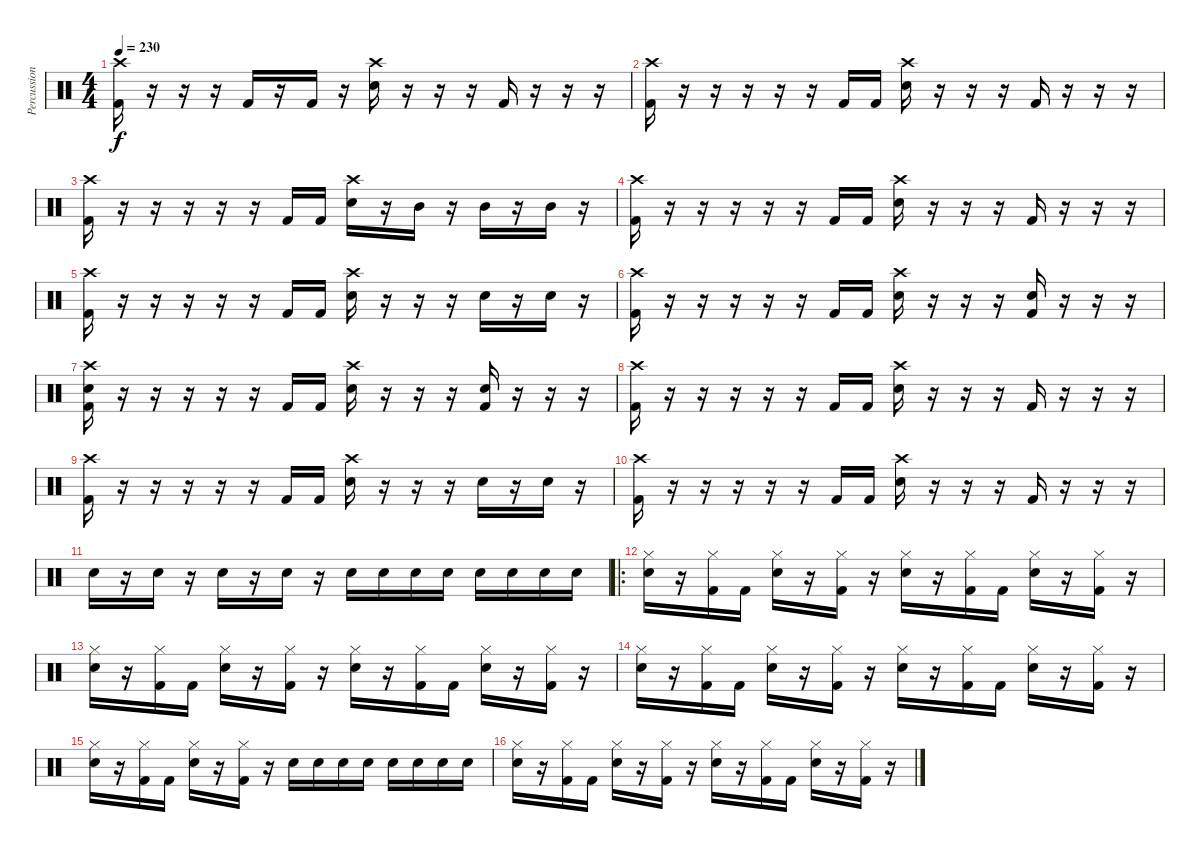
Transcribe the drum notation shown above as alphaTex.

\track ("Percussion" "Percussion") {instrument percussion}
\staff {score}
\articulation defaults
\ts (4 4)
\tempo 230
\clef neutral
\ks c
("Crash high (hit)" "Kick (hit) 2").16{dy f} r.16 r.16 r.16 "Kick (hit) 2".16 r.16 "Kick (hit) 2".16 r.16 ("Crash high (hit)" "Electric Snare (hit)").16 r.16 r.16 r.16 "Kick (hit) 2".16 r.16 r.16 r.16 |
("Crash high (hit)" "Kick (hit) 2").16 r.16 r.16 r.16 r.16 r.16 "Kick (hit) 2".16 "Kick (hit) 2".16 ("Crash high (hit)" "Electric Snare (hit)").16 r.16 r.16 r.16 "Kick (hit) 2".16 r.16 r.16 r.16 |
("Crash high (hit)" "Kick (hit) 2").16 r.16 r.16 r.16 r.16 r.16 "Kick (hit) 2".16 "Kick (hit) 2".16 ("Crash high (hit)" "Electric Snare (hit)").16 r.16 "Mid Tom (hit)".16 r.16 "Mid Tom (hit)".16 r.16 "Mid Tom (hit)".16 r.16 |
("Crash high (hit)" "Kick (hit) 2").16 r.16 r.16 r.16 r.16 r.16 "Kick (hit) 2".16 "Kick (hit) 2".16 ("Crash high (hit)" "Electric Snare (hit)").16 r.16 r.16 r.16 "Kick (hit) 2".16 r.16 r.16 r.16 |
("Crash high (hit)" "Kick (hit) 2").16 r.16 r.16 r.16 r.16 r.16 "Kick (hit) 2".16 "Kick (hit) 2".16 ("Crash high (hit)" "Electric Snare (hit)").16 r.16 r.16 r.16 "Electric Snare (hit)".16 r.16 "Electric Snare (hit)".16 r.16 |
("Crash high (hit)" "Kick (hit) 2").16 r.16 r.16 r.16 r.16 r.16 "Kick (hit) 2".16 "Kick (hit) 2".16 ("Crash high (hit)" "Electric Snare (hit)").16 r.16 r.16 r.16 ("Electric Snare (hit)" "Kick (hit) 2").16 r.16 r.16 r.16 |
("Crash high (hit)" "Electric Snare (hit)" "Kick (hit) 2").16 r.16 r.16 r.16 r.16 r.16 "Kick (hit) 2".16 "Kick (hit) 2".16 ("Crash high (hit)" "Electric Snare (hit)").16 r.16 r.16 r.16 ("Electric Snare (hit)" "Kick (hit) 2").16 r.16 r.16 r.16 |
("Crash high (hit)" "Kick (hit) 2").16 r.16 r.16 r.16 r.16 r.16 "Kick (hit) 2".16 "Kick (hit) 2".16 ("Crash high (hit)" "Electric Snare (hit)").16 r.16 r.16 r.16 "Kick (hit) 2".16 r.16 r.16 r.16 |
("Crash high (hit)" "Kick (hit) 2").16 r.16 r.16 r.16 r.16 r.16 "Kick (hit) 2".16 "Kick (hit) 2".16 ("Crash high (hit)" "Electric Snare (hit)").16 r.16 r.16 r.16 "Electric Snare (hit)".16 r.16 "Electric Snare (hit)".16 r.16 |
("Crash high (hit)" "Kick (hit) 2").16 r.16 r.16 r.16 r.16 r.16 "Kick (hit) 2".16 "Kick (hit) 2".16 ("Crash high (hit)" "Electric Snare (hit)").16 r.16 r.16 r.16 "Kick (hit) 2".16 r.16 r.16 r.16 |
"Electric Snare (hit)".16 r.16 "Electric Snare (hit)".16 r.16 "Electric Snare (hit)".16 r.16 "Electric Snare (hit)".16 r.16 "Electric Snare (hit)".16 "Electric Snare (hit)".16 "Electric Snare (hit)".16 "Electric Snare (hit)".16 "Electric Snare (hit)".16 "Electric Snare (hit)".16 "Electric Snare (hit)".16 "Electric Snare (hit)".16 |
\ro
("Hi-Hat (closed)" "Electric Snare (hit)").16 r.16 ("Hi-Hat (closed)" "Kick (hit) 2").16 "Kick (hit) 2".16 ("Hi-Hat (closed)" "Electric Snare (hit)").16 r.16 ("Hi-Hat (closed)" "Kick (hit) 2").16 r.16 ("Hi-Hat (closed)" "Electric Snare (hit)").16 r.16 ("Hi-Hat (closed)" "Kick (hit) 2").16 "Kick (hit) 2".16 ("Hi-Hat (closed)" "Electric Snare (hit)").16 r.16 ("Hi-Hat (closed)" "Kick (hit) 2").16 r.16 |
("Hi-Hat (closed)" "Electric Snare (hit)").16 r.16 ("Hi-Hat (closed)" "Kick (hit) 2").16 "Kick (hit) 2".16 ("Hi-Hat (closed)" "Electric Snare (hit)").16 r.16 ("Hi-Hat (closed)" "Kick (hit) 2").16 r.16 ("Hi-Hat (closed)" "Electric Snare (hit)").16 r.16 ("Hi-Hat (closed)" "Kick (hit) 2").16 "Kick (hit) 2".16 ("Hi-Hat (closed)" "Electric Snare (hit)").16 r.16 ("Hi-Hat (closed)" "Kick (hit) 2").16 r.16 |
("Hi-Hat (closed)" "Electric Snare (hit)").16 r.16 ("Hi-Hat (closed)" "Kick (hit) 2").16 "Kick (hit) 2".16 ("Hi-Hat (closed)" "Electric Snare (hit)").16 r.16 ("Hi-Hat (closed)" "Kick (hit) 2").16 r.16 ("Hi-Hat (closed)" "Electric Snare (hit)").16 r.16 ("Hi-Hat (closed)" "Kick (hit) 2").16 "Kick (hit) 2".16 ("Hi-Hat (closed)" "Electric Snare (hit)").16 r.16 ("Hi-Hat (closed)" "Kick (hit) 2").16 r.16 |
("Hi-Hat (closed)" "Electric Snare (hit)").16 r.16 ("Hi-Hat (closed)" "Kick (hit) 2").16 "Kick (hit) 2".16 ("Hi-Hat (closed)" "Electric Snare (hit)").16 r.16 ("Hi-Hat (closed)" "Kick (hit) 2").16 r.16 "Electric Snare (hit)".16 "Electric Snare (hit)".16 "Electric Snare (hit)".16 "Electric Snare (hit)".16 "Electric Snare (hit)".16 "Electric Snare (hit)".16 "Electric Snare (hit)".16 "Electric Snare (hit)".16 |
("Hi-Hat (closed)" "Electric Snare (hit)").16 r.16 ("Hi-Hat (closed)" "Kick (hit) 2").16 "Kick (hit) 2".16 ("Hi-Hat (closed)" "Electric Snare (hit)").16 r.16 ("Hi-Hat (closed)" "Kick (hit) 2").16 r.16 ("Hi-Hat (closed)" "Electric Snare (hit)").16 r.16 ("Hi-Hat (closed)" "Kick (hit) 2").16 "Kick (hit) 2".16 ("Hi-Hat (closed)" "Electric Snare (hit)").16 r.16 ("Hi-Hat (closed)" "Kick (hit) 2").16 r.16
